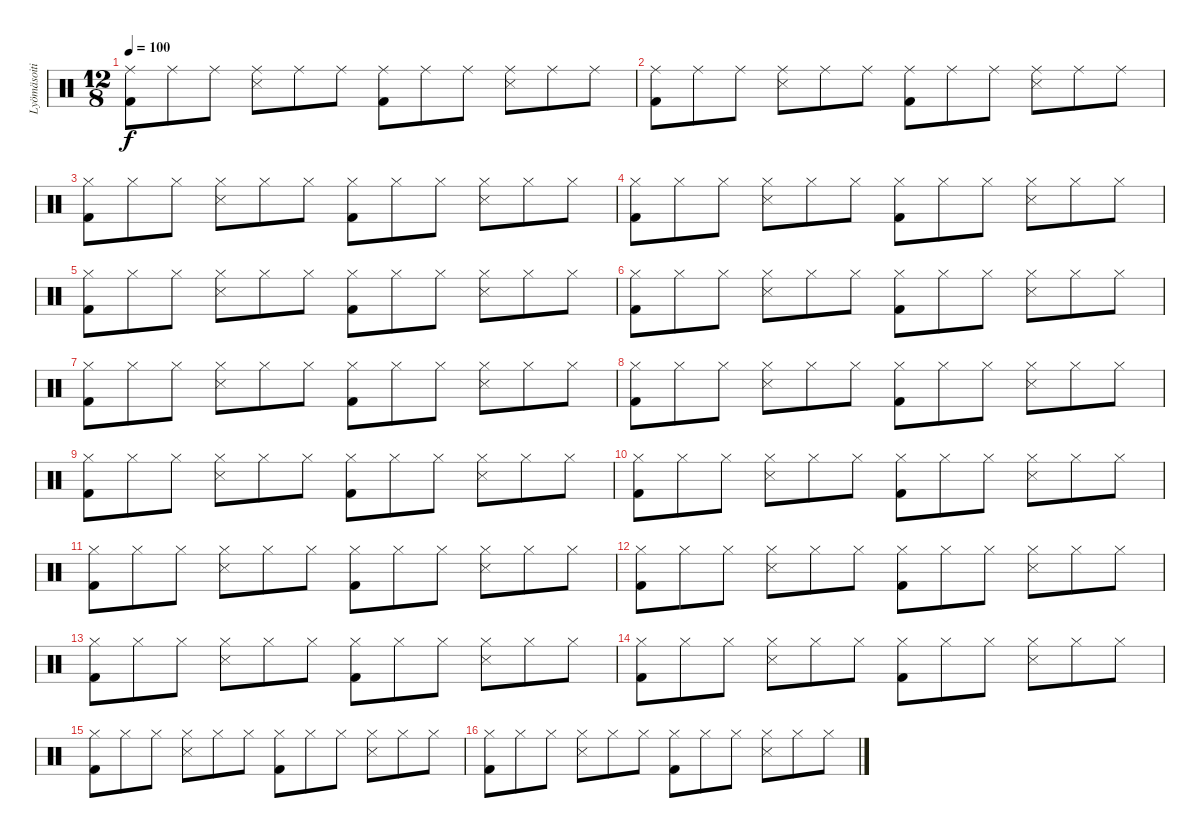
\track ("Lyömäsoitin" "Lyömäsoiti") {instrument percussion}
\staff {score}
\articulation defaults
\ts (12 8)
\tempo 100
\clef neutral
\ks c
("Ride (middle)" "Kick (hit) 2").8{dy f} "Ride (middle)".8 "Ride (middle)".8 ("Ride (middle)" "Snare (side stick) 3").8 "Ride (middle)".8 "Ride (middle)".8 ("Ride (middle)" "Kick (hit) 2").8 "Ride (middle)".8 "Ride (middle)".8 ("Ride (middle)" "Snare (side stick) 3").8 "Ride (middle)".8 "Ride (middle)".8 |
("Ride (middle)" "Kick (hit) 2").8 "Ride (middle)".8 "Ride (middle)".8 ("Ride (middle)" "Snare (side stick) 3").8 "Ride (middle)".8 "Ride (middle)".8 ("Ride (middle)" "Kick (hit) 2").8 "Ride (middle)".8 "Ride (middle)".8 ("Ride (middle)" "Snare (side stick) 3").8 "Ride (middle)".8 "Ride (middle)".8 |
("Hi-Hat (closed)" "Kick (hit) 2").8 "Hi-Hat (closed)".8 "Hi-Hat (closed)".8 ("Hi-Hat (closed)" "Snare (side stick) 3").8 "Hi-Hat (closed)".8 "Hi-Hat (closed)".8 ("Hi-Hat (closed)" "Kick (hit) 2").8 "Hi-Hat (closed)".8 "Hi-Hat (closed)".8 ("Hi-Hat (closed)" "Snare (side stick) 3").8 "Hi-Hat (closed)".8 "Hi-Hat (closed)".8 |
("Hi-Hat (closed)" "Kick (hit) 2").8 "Hi-Hat (closed)".8 "Hi-Hat (closed)".8 ("Hi-Hat (closed)" "Snare (side stick) 3").8 "Hi-Hat (closed)".8 "Hi-Hat (closed)".8 ("Hi-Hat (closed)" "Kick (hit) 2").8 "Hi-Hat (closed)".8 "Hi-Hat (closed)".8 ("Hi-Hat (closed)" "Snare (side stick) 3").8 "Hi-Hat (closed)".8 "Hi-Hat (closed)".8 |
("Hi-Hat (closed)" "Kick (hit) 2").8 "Hi-Hat (closed)".8 "Hi-Hat (closed)".8 ("Hi-Hat (closed)" "Snare (side stick) 3").8 "Hi-Hat (closed)".8 "Hi-Hat (closed)".8 ("Hi-Hat (closed)" "Kick (hit) 2").8 "Hi-Hat (closed)".8 "Hi-Hat (closed)".8 ("Hi-Hat (closed)" "Snare (side stick) 3").8 "Hi-Hat (closed)".8 "Hi-Hat (closed)".8 |
("Hi-Hat (closed)" "Kick (hit) 2").8 "Hi-Hat (closed)".8 "Hi-Hat (closed)".8 ("Hi-Hat (closed)" "Snare (side stick) 3").8 "Hi-Hat (closed)".8 "Hi-Hat (closed)".8 ("Hi-Hat (closed)" "Kick (hit) 2").8 "Hi-Hat (closed)".8 "Hi-Hat (closed)".8 ("Hi-Hat (closed)" "Snare (side stick) 3").8 "Hi-Hat (closed)".8 "Hi-Hat (closed)".8 |
("Hi-Hat (closed)" "Kick (hit) 2").8 "Hi-Hat (closed)".8 "Hi-Hat (closed)".8 ("Hi-Hat (closed)" "Snare (side stick) 3").8 "Hi-Hat (closed)".8 "Hi-Hat (closed)".8 ("Hi-Hat (closed)" "Kick (hit) 2").8 "Hi-Hat (closed)".8 "Hi-Hat (closed)".8 ("Hi-Hat (closed)" "Snare (side stick) 3").8 "Hi-Hat (closed)".8 "Hi-Hat (closed)".8 |
("Hi-Hat (closed)" "Kick (hit) 2").8 "Hi-Hat (closed)".8 "Hi-Hat (closed)".8 ("Hi-Hat (closed)" "Snare (side stick) 3").8 "Hi-Hat (closed)".8 "Hi-Hat (closed)".8 ("Hi-Hat (closed)" "Kick (hit) 2").8 "Hi-Hat (closed)".8 "Hi-Hat (closed)".8 ("Hi-Hat (closed)" "Snare (side stick) 3").8 "Hi-Hat (closed)".8 "Hi-Hat (closed)".8 |
("Hi-Hat (closed)" "Kick (hit) 2").8 "Hi-Hat (closed)".8 "Hi-Hat (closed)".8 ("Hi-Hat (closed)" "Snare (side stick) 3").8 "Hi-Hat (closed)".8 "Hi-Hat (closed)".8 ("Hi-Hat (closed)" "Kick (hit) 2").8 "Hi-Hat (closed)".8 "Hi-Hat (closed)".8 ("Hi-Hat (closed)" "Snare (side stick) 3").8 "Hi-Hat (closed)".8 "Hi-Hat (closed)".8 |
("Hi-Hat (closed)" "Kick (hit) 2").8 "Hi-Hat (closed)".8 "Hi-Hat (closed)".8 ("Hi-Hat (closed)" "Snare (side stick) 3").8 "Hi-Hat (closed)".8 "Hi-Hat (closed)".8 ("Hi-Hat (closed)" "Kick (hit) 2").8 "Hi-Hat (closed)".8 "Hi-Hat (closed)".8 ("Hi-Hat (closed)" "Snare (side stick) 3").8 "Hi-Hat (closed)".8 "Hi-Hat (closed)".8 |
("Hi-Hat (closed)" "Kick (hit) 2").8 "Hi-Hat (closed)".8 "Hi-Hat (closed)".8 ("Hi-Hat (closed)" "Snare (side stick) 3").8 "Hi-Hat (closed)".8 "Hi-Hat (closed)".8 ("Hi-Hat (closed)" "Kick (hit) 2").8 "Hi-Hat (closed)".8 "Hi-Hat (closed)".8 ("Hi-Hat (closed)" "Snare (side stick) 3").8 "Hi-Hat (closed)".8 "Hi-Hat (closed)".8 |
("Hi-Hat (closed)" "Kick (hit) 2").8 "Hi-Hat (closed)".8 "Hi-Hat (closed)".8 ("Hi-Hat (closed)" "Snare (side stick) 3").8 "Hi-Hat (closed)".8 "Hi-Hat (closed)".8 ("Hi-Hat (closed)" "Kick (hit) 2").8 "Hi-Hat (closed)".8 "Hi-Hat (closed)".8 ("Hi-Hat (closed)" "Snare (side stick) 3").8 "Hi-Hat (closed)".8 "Hi-Hat (closed)".8 |
("Hi-Hat (closed)" "Kick (hit) 2").8 "Hi-Hat (closed)".8 "Hi-Hat (closed)".8 ("Hi-Hat (closed)" "Snare (side stick) 3").8 "Hi-Hat (closed)".8 "Hi-Hat (closed)".8 ("Hi-Hat (closed)" "Kick (hit) 2").8 "Hi-Hat (closed)".8 "Hi-Hat (closed)".8 ("Hi-Hat (closed)" "Snare (side stick) 3").8 "Hi-Hat (closed)".8 "Hi-Hat (closed)".8 |
("Hi-Hat (closed)" "Kick (hit) 2").8 "Hi-Hat (closed)".8 "Hi-Hat (closed)".8 ("Hi-Hat (closed)" "Snare (side stick) 3").8 "Hi-Hat (closed)".8 "Hi-Hat (closed)".8 ("Hi-Hat (closed)" "Kick (hit) 2").8 "Hi-Hat (closed)".8 "Hi-Hat (closed)".8 ("Hi-Hat (closed)" "Snare (side stick) 3").8 "Hi-Hat (closed)".8 "Hi-Hat (closed)".8 |
("Hi-Hat (closed)" "Kick (hit) 2").8 "Hi-Hat (closed)".8 "Hi-Hat (closed)".8 ("Hi-Hat (closed)" "Snare (side stick) 3").8 "Hi-Hat (closed)".8 "Hi-Hat (closed)".8 ("Hi-Hat (closed)" "Kick (hit) 2").8 "Hi-Hat (closed)".8 "Hi-Hat (closed)".8 ("Hi-Hat (closed)" "Snare (side stick) 3").8 "Hi-Hat (closed)".8 "Hi-Hat (closed)".8 |
("Hi-Hat (closed)" "Kick (hit) 2").8 "Hi-Hat (closed)".8 "Hi-Hat (closed)".8 ("Hi-Hat (closed)" "Snare (side stick) 3").8 "Hi-Hat (closed)".8 "Hi-Hat (closed)".8 ("Hi-Hat (closed)" "Kick (hit) 2").8 "Hi-Hat (closed)".8 "Hi-Hat (closed)".8 ("Hi-Hat (closed)" "Snare (side stick) 3").8 "Hi-Hat (closed)".8 "Hi-Hat (closed)".8
